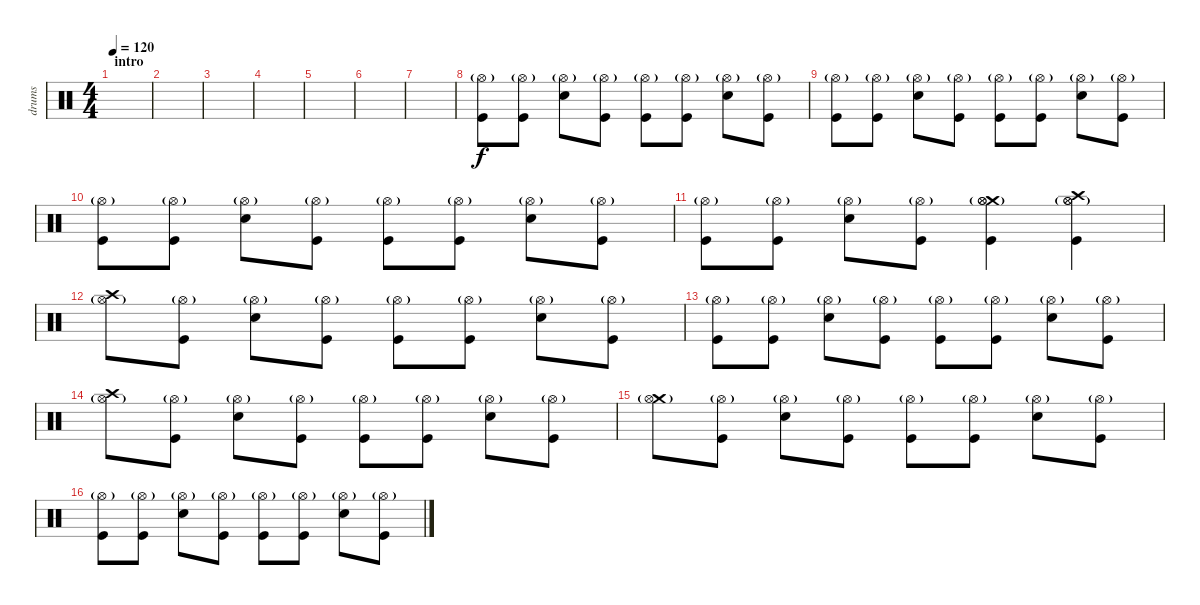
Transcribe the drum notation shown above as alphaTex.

\track ("drums" "drums") {instrument percussion}
\staff {score}
\articulation defaults
\ts (4 4)
\section ("" "intro")
\tempo 120
\clef neutral
\ks c
|
|
|
|
|
|
|
("Kick (hit)" "Hi-Hat (open)"{g}).8 ("Kick (hit)" "Hi-Hat (open)"{g}).8 ("Electric Snare (hit)" "Hi-Hat (open)"{g}).8 ("Kick (hit)" "Hi-Hat (open)"{g}).8 ("Kick (hit)" "Hi-Hat (open)"{g}).8 ("Kick (hit)" "Hi-Hat (open)"{g}).8 ("Electric Snare (hit)" "Hi-Hat (open)"{g}).8 ("Kick (hit)" "Hi-Hat (open)"{g}).8 |
("Kick (hit)" "Hi-Hat (open)"{g}).8 ("Kick (hit)" "Hi-Hat (open)"{g}).8 ("Electric Snare (hit)" "Hi-Hat (open)"{g}).8 ("Kick (hit)" "Hi-Hat (open)"{g}).8 ("Kick (hit)" "Hi-Hat (open)"{g}).8 ("Kick (hit)" "Hi-Hat (open)"{g}).8 ("Electric Snare (hit)" "Hi-Hat (open)"{g}).8 ("Kick (hit)" "Hi-Hat (open)"{g}).8 |
("Kick (hit)" "Hi-Hat (open)"{g}).8 ("Kick (hit)" "Hi-Hat (open)"{g}).8 ("Electric Snare (hit)" "Hi-Hat (open)"{g}).8 ("Kick (hit)" "Hi-Hat (open)"{g}).8 ("Kick (hit)" "Hi-Hat (open)"{g}).8 ("Kick (hit)" "Hi-Hat (open)"{g}).8 ("Electric Snare (hit)" "Hi-Hat (open)"{g}).8 ("Kick (hit)" "Hi-Hat (open)"{g}).8 |
("Kick (hit)" "Hi-Hat (open)"{g}).8 ("Kick (hit)" "Hi-Hat (open)"{g}).8 ("Electric Snare (hit)" "Hi-Hat (open)"{g}).8 ("Kick (hit)" "Hi-Hat (open)"{g}).8 ("Crash medium (hit)" "Hi-Hat (open)" "Kick (hit)" "Hi-Hat (open)"{g}).4 ("Crash high (hit)" "Hi-Hat (open)" "Kick (hit)" "Hi-Hat (open)"{g}).4 |
("Crash high (hit)" "Hi-Hat (open)"{g}).8 ("Kick (hit)" "Hi-Hat (open)"{g}).8 ("Electric Snare (hit)" "Hi-Hat (open)"{g}).8 ("Kick (hit)" "Hi-Hat (open)"{g}).8 ("Kick (hit)" "Hi-Hat (open)"{g}).8 ("Kick (hit)" "Hi-Hat (open)"{g}).8 ("Electric Snare (hit)" "Hi-Hat (open)"{g}).8 ("Kick (hit)" "Hi-Hat (open)"{g}).8 |
("Kick (hit)" "Hi-Hat (open)"{g}).8 ("Kick (hit)" "Hi-Hat (open)"{g}).8 ("Electric Snare (hit)" "Hi-Hat (open)"{g}).8 ("Kick (hit)" "Hi-Hat (open)"{g}).8 ("Kick (hit)" "Hi-Hat (open)"{g}).8 ("Kick (hit)" "Hi-Hat (open)"{g}).8 ("Electric Snare (hit)" "Hi-Hat (open)"{g}).8 ("Kick (hit)" "Hi-Hat (open)"{g}).8 |
("Crash high (hit)" "Hi-Hat (open)"{g}).8 ("Kick (hit)" "Hi-Hat (open)"{g}).8 ("Electric Snare (hit)" "Hi-Hat (open)"{g}).8 ("Kick (hit)" "Hi-Hat (open)"{g}).8 ("Kick (hit)" "Hi-Hat (open)"{g}).8 ("Kick (hit)" "Hi-Hat (open)"{g}).8 ("Electric Snare (hit)" "Hi-Hat (open)"{g}).8 ("Kick (hit)" "Hi-Hat (open)"{g}).8 |
("Crash medium (hit)" "Hi-Hat (open)"{g}).8 ("Kick (hit)" "Hi-Hat (open)"{g}).8 ("Electric Snare (hit)" "Hi-Hat (open)"{g}).8 ("Kick (hit)" "Hi-Hat (open)"{g}).8 ("Kick (hit)" "Hi-Hat (open)"{g}).8 ("Kick (hit)" "Hi-Hat (open)"{g}).8 ("Electric Snare (hit)" "Hi-Hat (open)"{g}).8 ("Kick (hit)" "Hi-Hat (open)"{g}).8 |
("Kick (hit)" "Hi-Hat (open)"{g}).8 ("Kick (hit)" "Hi-Hat (open)"{g}).8 ("Electric Snare (hit)" "Hi-Hat (open)"{g}).8 ("Kick (hit)" "Hi-Hat (open)"{g}).8 ("Kick (hit)" "Hi-Hat (open)"{g}).8 ("Kick (hit)" "Hi-Hat (open)"{g}).8 ("Electric Snare (hit)" "Hi-Hat (open)"{g}).8 ("Kick (hit)" "Hi-Hat (open)"{g}).8
